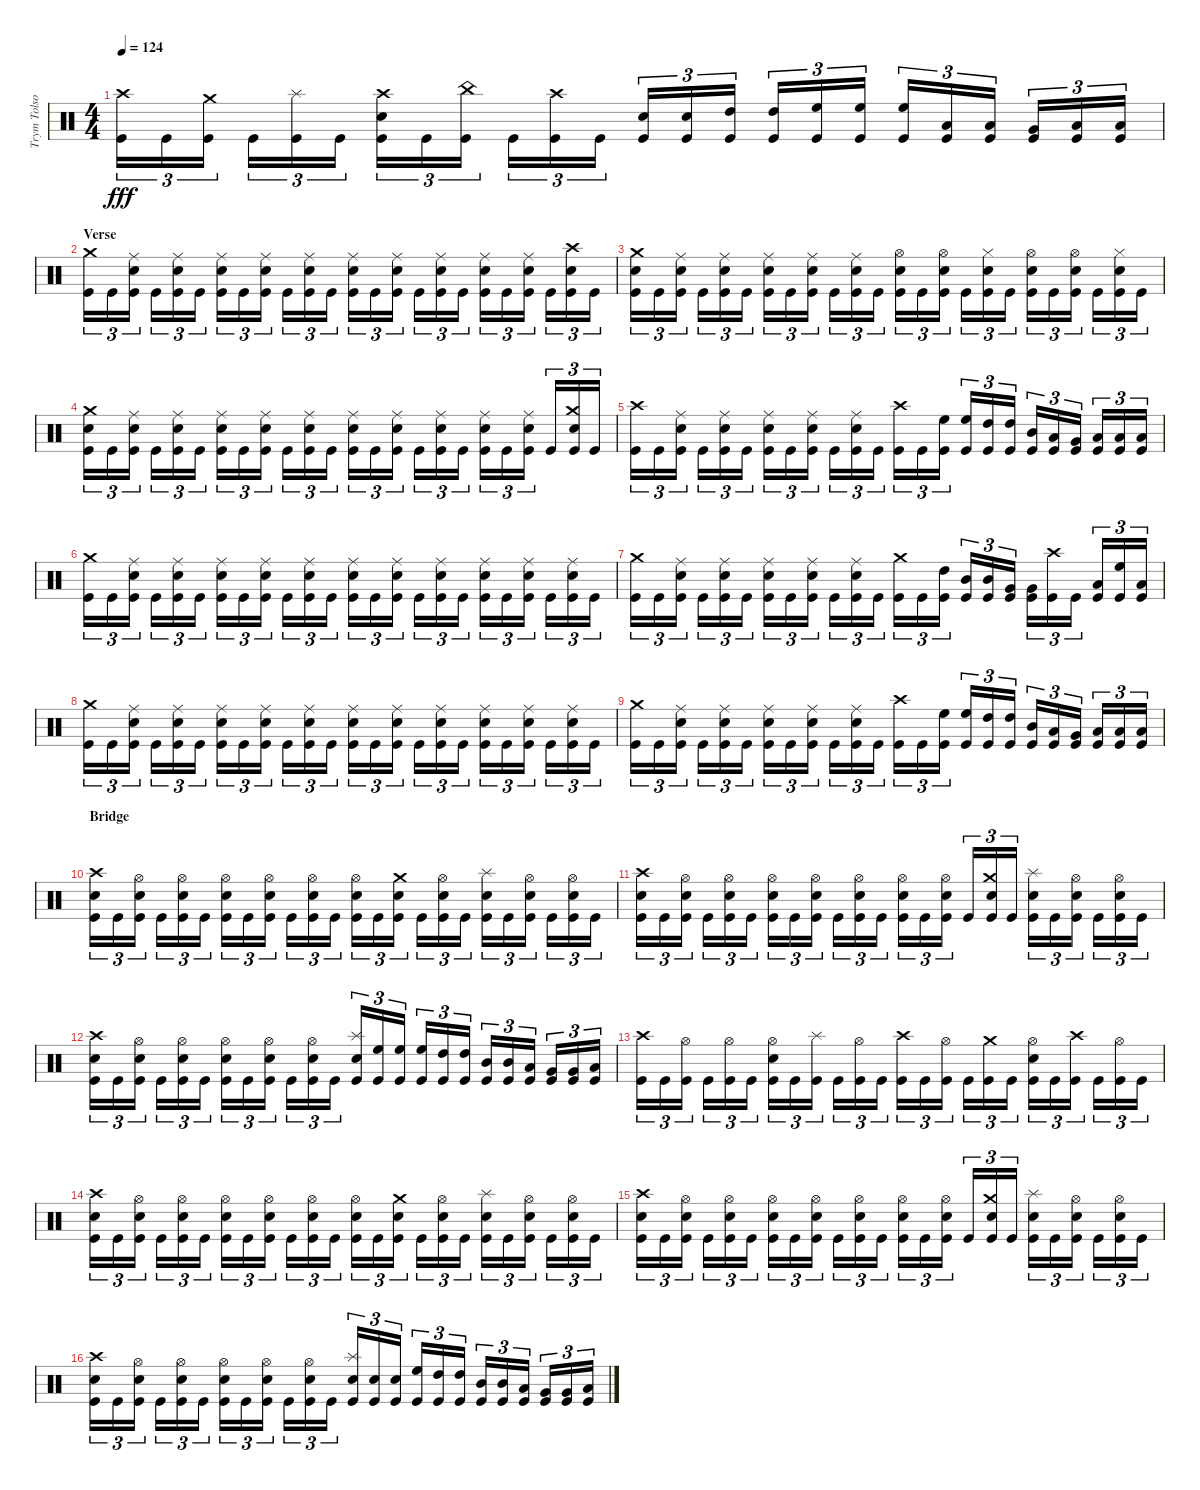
\track ("Trym Tolson" "Trym Tolso") {instrument percussion}
\staff {score}
\articulation defaults
\ts (4 4)
\tempo 124
\clef neutral
\ks c
("Crash high (hit)" "Kick (hit)").16{tu (3 2) dy fff} "Kick (hit)".16{tu (3 2)} ("Crash medium (hit)" "Kick (hit)").16{tu (3 2)} "Kick (hit)".16{tu (3 2)} ("Splash (hit)" "Kick (hit)").16{tu (3 2)} "Kick (hit)".16{tu (3 2)} ("Crash high (hit)" "Electric Snare (hit)" "Kick (hit)").16{tu (3 2)} "Kick (hit)".16{tu (3 2)} ("China (hit)" "Kick (hit)").16{tu (3 2)} "Kick (hit)".16{tu (3 2)} ("Crash high (hit)" "Kick (hit)").16{tu (3 2)} "Kick (hit)".16{tu (3 2)} ("Electric Snare (hit)" "Kick (hit)").16{tu (3 2)} ("Electric Snare (hit)" "Kick (hit)").16{tu (3 2)} ("High Tom (hit)" "Kick (hit)").16{tu (3 2)} ("High Tom (hit)" "Kick (hit)").16{tu (3 2)} ("High Floor Tom (hit)" "Kick (hit)").16{tu (3 2)} ("High Floor Tom (hit)" "Kick (hit)").16{tu (3 2)} ("High Floor Tom (hit)" "Kick (hit)").16{tu (3 2)} ("Low Tom (hit)" "Kick (hit)").16{tu (3 2)} ("Low Tom (hit)" "Kick (hit)").16{tu (3 2)} ("Very Low Tom (hit)" "Kick (hit)").16{tu (3 2)} ("Low Floor Tom (hit)" "Kick (hit)").16{tu (3 2)} ("Low Floor Tom (hit)" "Kick (hit)").16{tu (3 2)} |
\section ("" "Verse")
("Crash medium (hit)" "Kick (hit)").16{tu (3 2)} "Kick (hit)".16{tu (3 2)} ("Ride (middle)" "Electric Snare (hit)" "Kick (hit)").16{tu (3 2)} "Kick (hit)".16{tu (3 2)} ("Ride (middle)" "Electric Snare (hit)" "Kick (hit)").16{tu (3 2)} "Kick (hit)".16{tu (3 2)} ("Ride (middle)" "Electric Snare (hit)" "Kick (hit)").16{tu (3 2)} "Kick (hit)".16{tu (3 2)} ("Ride (middle)" "Electric Snare (hit)" "Kick (hit)").16{tu (3 2)} "Kick (hit)".16{tu (3 2)} ("Ride (middle)" "Electric Snare (hit)" "Kick (hit)").16{tu (3 2)} "Kick (hit)".16{tu (3 2)} ("Ride (middle)" "Electric Snare (hit)" "Kick (hit)").16{tu (3 2)} "Kick (hit)".16{tu (3 2)} ("Ride (middle)" "Electric Snare (hit)" "Kick (hit)").16{tu (3 2)} "Kick (hit)".16{tu (3 2)} ("Ride (middle)" "Electric Snare (hit)" "Kick (hit)").16{tu (3 2)} "Kick (hit)".16{tu (3 2)} ("Ride (middle)" "Electric Snare (hit)" "Kick (hit)").16{tu (3 2)} "Kick (hit)".16{tu (3 2)} ("Ride (middle)" "Electric Snare (hit)" "Kick (hit)").16{tu (3 2)} "Kick (hit)".16{tu (3 2)} ("Crash high (hit)" "Electric Snare (hit)" "Kick (hit)").16{tu (3 2)} "Kick (hit)".16{tu (3 2)} |
("Crash medium (hit)" "Electric Snare (hit)" "Kick (hit)").16{tu (3 2)} "Kick (hit)".16{tu (3 2)} ("Ride (middle)" "Electric Snare (hit)" "Kick (hit)").16{tu (3 2)} "Kick (hit)".16{tu (3 2)} ("Ride (middle)" "Electric Snare (hit)" "Kick (hit)").16{tu (3 2)} "Kick (hit)".16{tu (3 2)} ("Ride (middle)" "Electric Snare (hit)" "Kick (hit)").16{tu (3 2)} "Kick (hit)".16{tu (3 2)} ("Ride (middle)" "Electric Snare (hit)" "Kick (hit)").16{tu (3 2)} "Kick (hit)".16{tu (3 2)} ("Ride (middle)" "Electric Snare (hit)" "Kick (hit)").16{tu (3 2)} "Kick (hit)".16{tu (3 2)} ("Hi-Hat (open)" "Electric Snare (hit)" "Kick (hit)").16{tu (3 2)} "Kick (hit)".16{tu (3 2)} ("Hi-Hat (open)" "Electric Snare (hit)" "Kick (hit)").16{tu (3 2)} "Kick (hit)".16{tu (3 2)} ("Hi-Hat (closed)" "Electric Snare (hit)" "Kick (hit)").16{tu (3 2)} "Kick (hit)".16{tu (3 2)} ("Hi-Hat (open)" "Electric Snare (hit)" "Kick (hit)").16{tu (3 2)} "Kick (hit)".16{tu (3 2)} ("Hi-Hat (open)" "Electric Snare (hit)" "Kick (hit)").16{tu (3 2)} "Kick (hit)".16{tu (3 2)} ("Hi-Hat (closed)" "Electric Snare (hit)" "Kick (hit)").16{tu (3 2)} "Kick (hit)".16{tu (3 2)} |
("Crash medium (hit)" "Electric Snare (hit)" "Kick (hit)").16{tu (3 2)} "Kick (hit)".16{tu (3 2)} ("Ride (middle)" "Electric Snare (hit)" "Kick (hit)").16{tu (3 2)} "Kick (hit)".16{tu (3 2)} ("Ride (middle)" "Electric Snare (hit)" "Kick (hit)").16{tu (3 2)} "Kick (hit)".16{tu (3 2)} ("Ride (middle)" "Electric Snare (hit)" "Kick (hit)").16{tu (3 2)} "Kick (hit)".16{tu (3 2)} ("Ride (middle)" "Electric Snare (hit)" "Kick (hit)").16{tu (3 2)} "Kick (hit)".16{tu (3 2)} ("Ride (middle)" "Electric Snare (hit)" "Kick (hit)").16{tu (3 2)} "Kick (hit)".16{tu (3 2)} ("Ride (middle)" "Electric Snare (hit)" "Kick (hit)").16{tu (3 2)} "Kick (hit)".16{tu (3 2)} ("Ride (middle)" "Electric Snare (hit)" "Kick (hit)").16{tu (3 2)} "Kick (hit)".16{tu (3 2)} ("Ride (middle)" "Electric Snare (hit)" "Kick (hit)").16{tu (3 2)} "Kick (hit)".16{tu (3 2)} ("Ride (middle)" "Electric Snare (hit)" "Kick (hit)").16{tu (3 2)} "Kick (hit)".16{tu (3 2)} ("Ride (middle)" "Electric Snare (hit)" "Kick (hit)").16{tu (3 2)} "Kick (hit)".16{tu (3 2)} ("Crash medium (hit)" "Electric Snare (hit)" "Kick (hit)").16{tu (3 2)} "Kick (hit)".16{tu (3 2)} |
("Crash high (hit)" "Kick (hit)").16{tu (3 2)} "Kick (hit)".16{tu (3 2)} ("Ride (middle)" "Electric Snare (hit)" "Kick (hit)").16{tu (3 2)} "Kick (hit)".16{tu (3 2)} ("Ride (middle)" "Electric Snare (hit)" "Kick (hit)").16{tu (3 2)} "Kick (hit)".16{tu (3 2)} ("Ride (middle)" "Electric Snare (hit)" "Kick (hit)").16{tu (3 2)} "Kick (hit)".16{tu (3 2)} ("Ride (middle)" "Electric Snare (hit)" "Kick (hit)").16{tu (3 2)} "Kick (hit)".16{tu (3 2)} ("Ride (middle)" "Electric Snare (hit)" "Kick (hit)").16{tu (3 2)} "Kick (hit)".16{tu (3 2)} ("Crash high (hit)" "Kick (hit)").16{tu (3 2)} "Kick (hit)".16{tu (3 2)} ("High Floor Tom (hit)" "Kick (hit)").16{tu (3 2)} ("High Floor Tom (hit)" "Kick (hit)").16{tu (3 2)} ("High Tom (hit)" "Kick (hit)").16{tu (3 2)} ("High Tom (hit)" "Kick (hit)").16{tu (3 2)} ("Mid Tom (hit)" "Kick (hit)").16{tu (3 2)} ("Low Tom (hit)" "Kick (hit)").16{tu (3 2)} ("Very Low Tom (hit)" "Kick (hit)").16{tu (3 2)} ("Low Floor Tom (hit)" "Kick (hit)").16{tu (3 2)} ("Low Floor Tom (hit)" "Kick (hit)").16{tu (3 2)} ("Low Floor Tom (hit)" "Kick (hit)").16{tu (3 2)} |
("Crash medium (hit)" "Kick (hit)").16{tu (3 2)} "Kick (hit)".16{tu (3 2)} ("Ride (middle)" "Electric Snare (hit)" "Kick (hit)").16{tu (3 2)} "Kick (hit)".16{tu (3 2)} ("Ride (middle)" "Electric Snare (hit)" "Kick (hit)").16{tu (3 2)} "Kick (hit)".16{tu (3 2)} ("Ride (middle)" "Electric Snare (hit)" "Kick (hit)").16{tu (3 2)} "Kick (hit)".16{tu (3 2)} ("Ride (middle)" "Electric Snare (hit)" "Kick (hit)").16{tu (3 2)} "Kick (hit)".16{tu (3 2)} ("Ride (middle)" "Electric Snare (hit)" "Kick (hit)").16{tu (3 2)} "Kick (hit)".16{tu (3 2)} ("Ride (middle)" "Electric Snare (hit)" "Kick (hit)").16{tu (3 2)} "Kick (hit)".16{tu (3 2)} ("Ride (middle)" "Electric Snare (hit)" "Kick (hit)").16{tu (3 2)} "Kick (hit)".16{tu (3 2)} ("Ride (middle)" "Electric Snare (hit)" "Kick (hit)").16{tu (3 2)} "Kick (hit)".16{tu (3 2)} ("Ride (middle)" "Electric Snare (hit)" "Kick (hit)").16{tu (3 2)} "Kick (hit)".16{tu (3 2)} ("Ride (middle)" "Electric Snare (hit)" "Kick (hit)").16{tu (3 2)} "Kick (hit)".16{tu (3 2)} ("Ride (middle)" "Electric Snare (hit)" "Kick (hit)").16{tu (3 2)} "Kick (hit)".16{tu (3 2)} |
("Crash medium (hit)" "Kick (hit)").16{tu (3 2)} "Kick (hit)".16{tu (3 2)} ("Ride (middle)" "Electric Snare (hit)" "Kick (hit)").16{tu (3 2)} "Kick (hit)".16{tu (3 2)} ("Ride (middle)" "Electric Snare (hit)" "Kick (hit)").16{tu (3 2)} "Kick (hit)".16{tu (3 2)} ("Ride (middle)" "Electric Snare (hit)" "Kick (hit)").16{tu (3 2)} "Kick (hit)".16{tu (3 2)} ("Ride (middle)" "Electric Snare (hit)" "Kick (hit)").16{tu (3 2)} "Kick (hit)".16{tu (3 2)} ("Ride (middle)" "Electric Snare (hit)" "Kick (hit)").16{tu (3 2)} "Kick (hit)".16{tu (3 2)} ("Crash medium (hit)" "Kick (hit)").16{tu (3 2)} "Kick (hit)".16{tu (3 2)} ("High Tom (hit)" "Kick (hit)").16{tu (3 2)} ("Mid Tom (hit)" "Kick (hit)").16{tu (3 2)} ("Mid Tom (hit)" "Kick (hit)").16{tu (3 2)} ("Very Low Tom (hit)" "Kick (hit)").16{tu (3 2)} ("Very Low Tom (hit)" "Kick (hit)").16{tu (3 2)} ("Crash high (hit)" "Kick (hit)").16{tu (3 2)} "Kick (hit)".16{tu (3 2)} ("Low Tom (hit)" "Kick (hit)").16{tu (3 2)} ("High Floor Tom (hit)" "Kick (hit)").16{tu (3 2)} ("Low Floor Tom (hit)" "Kick (hit)").16{tu (3 2)} |
("Crash medium (hit)" "Kick (hit)").16{tu (3 2)} "Kick (hit)".16{tu (3 2)} ("Ride (middle)" "Electric Snare (hit)" "Kick (hit)").16{tu (3 2)} "Kick (hit)".16{tu (3 2)} ("Ride (middle)" "Electric Snare (hit)" "Kick (hit)").16{tu (3 2)} "Kick (hit)".16{tu (3 2)} ("Ride (middle)" "Electric Snare (hit)" "Kick (hit)").16{tu (3 2)} "Kick (hit)".16{tu (3 2)} ("Ride (middle)" "Electric Snare (hit)" "Kick (hit)").16{tu (3 2)} "Kick (hit)".16{tu (3 2)} ("Ride (middle)" "Electric Snare (hit)" "Kick (hit)").16{tu (3 2)} "Kick (hit)".16{tu (3 2)} ("Ride (middle)" "Electric Snare (hit)" "Kick (hit)").16{tu (3 2)} "Kick (hit)".16{tu (3 2)} ("Ride (middle)" "Electric Snare (hit)" "Kick (hit)").16{tu (3 2)} "Kick (hit)".16{tu (3 2)} ("Ride (middle)" "Electric Snare (hit)" "Kick (hit)").16{tu (3 2)} "Kick (hit)".16{tu (3 2)} ("Ride (middle)" "Electric Snare (hit)" "Kick (hit)").16{tu (3 2)} "Kick (hit)".16{tu (3 2)} ("Ride (middle)" "Electric Snare (hit)" "Kick (hit)").16{tu (3 2)} "Kick (hit)".16{tu (3 2)} ("Ride (middle)" "Electric Snare (hit)" "Kick (hit)").16{tu (3 2)} "Kick (hit)".16{tu (3 2)} |
("Crash medium (hit)" "Kick (hit)").16{tu (3 2)} "Kick (hit)".16{tu (3 2)} ("Ride (middle)" "Electric Snare (hit)" "Kick (hit)").16{tu (3 2)} "Kick (hit)".16{tu (3 2)} ("Ride (middle)" "Electric Snare (hit)" "Kick (hit)").16{tu (3 2)} "Kick (hit)".16{tu (3 2)} ("Ride (middle)" "Electric Snare (hit)" "Kick (hit)").16{tu (3 2)} "Kick (hit)".16{tu (3 2)} ("Ride (middle)" "Electric Snare (hit)" "Kick (hit)").16{tu (3 2)} "Kick (hit)".16{tu (3 2)} ("Ride (middle)" "Electric Snare (hit)" "Kick (hit)").16{tu (3 2)} "Kick (hit)".16{tu (3 2)} ("Crash high (hit)" "Kick (hit)").16{tu (3 2)} "Kick (hit)".16{tu (3 2)} ("High Floor Tom (hit)" "Kick (hit)").16{tu (3 2)} ("High Floor Tom (hit)" "Kick (hit)").16{tu (3 2)} ("High Tom (hit)" "Kick (hit)").16{tu (3 2)} ("High Tom (hit)" "Kick (hit)").16{tu (3 2)} ("Mid Tom (hit)" "Kick (hit)").16{tu (3 2)} ("Low Tom (hit)" "Kick (hit)").16{tu (3 2)} ("Very Low Tom (hit)" "Kick (hit)").16{tu (3 2)} ("Low Floor Tom (hit)" "Kick (hit)").16{tu (3 2)} ("Low Floor Tom (hit)" "Kick (hit)").16{tu (3 2)} ("Low Floor Tom (hit)" "Kick (hit)").16{tu (3 2)} |
\section ("" "Bridge")
("Crash high (hit)" "Electric Snare (hit)" "Kick (hit)").16{tu (3 2)} "Kick (hit)".16{tu (3 2)} ("Hi-Hat (open)" "Electric Snare (hit)" "Kick (hit)").16{tu (3 2)} "Kick (hit)".16{tu (3 2)} ("Hi-Hat (open)" "Electric Snare (hit)" "Kick (hit)").16{tu (3 2)} "Kick (hit)".16{tu (3 2)} ("Hi-Hat (open)" "Electric Snare (hit)" "Kick (hit)").16{tu (3 2)} "Kick (hit)".16{tu (3 2)} ("Hi-Hat (open)" "Electric Snare (hit)" "Kick (hit)").16{tu (3 2)} "Kick (hit)".16{tu (3 2)} ("Hi-Hat (open)" "Electric Snare (hit)" "Kick (hit)").16{tu (3 2)} "Kick (hit)".16{tu (3 2)} ("Hi-Hat (open)" "Electric Snare (hit)" "Kick (hit)").16{tu (3 2)} "Kick (hit)".16{tu (3 2)} ("Crash medium (hit)" "Electric Snare (hit)" "Kick (hit)").16{tu (3 2)} "Kick (hit)".16{tu (3 2)} ("Hi-Hat (open)" "Electric Snare (hit)" "Kick (hit)").16{tu (3 2)} "Kick (hit)".16{tu (3 2)} ("Splash (hit)" "Electric Snare (hit)" "Kick (hit)").16{tu (3 2)} "Kick (hit)".16{tu (3 2)} ("Hi-Hat (open)" "Electric Snare (hit)" "Kick (hit)").16{tu (3 2)} "Kick (hit)".16{tu (3 2)} ("Hi-Hat (open)" "Electric Snare (hit)" "Kick (hit)").16{tu (3 2)} "Kick (hit)".16{tu (3 2)} |
("Crash high (hit)" "Electric Snare (hit)" "Kick (hit)").16{tu (3 2)} "Kick (hit)".16{tu (3 2)} ("Hi-Hat (open)" "Electric Snare (hit)" "Kick (hit)").16{tu (3 2)} "Kick (hit)".16{tu (3 2)} ("Hi-Hat (open)" "Electric Snare (hit)" "Kick (hit)").16{tu (3 2)} "Kick (hit)".16{tu (3 2)} ("Hi-Hat (open)" "Electric Snare (hit)" "Kick (hit)").16{tu (3 2)} "Kick (hit)".16{tu (3 2)} ("Hi-Hat (open)" "Electric Snare (hit)" "Kick (hit)").16{tu (3 2)} "Kick (hit)".16{tu (3 2)} ("Hi-Hat (open)" "Electric Snare (hit)" "Kick (hit)").16{tu (3 2)} "Kick (hit)".16{tu (3 2)} ("Hi-Hat (open)" "Electric Snare (hit)" "Kick (hit)").16{tu (3 2)} "Kick (hit)".16{tu (3 2)} ("Hi-Hat (open)" "Electric Snare (hit)" "Kick (hit)").16{tu (3 2)} "Kick (hit)".16{tu (3 2)} ("Crash medium (hit)" "Electric Snare (hit)" "Kick (hit)").16{tu (3 2)} "Kick (hit)".16{tu (3 2)} ("Splash (hit)" "Electric Snare (hit)" "Kick (hit)").16{tu (3 2)} "Kick (hit)".16{tu (3 2)} ("Hi-Hat (open)" "Electric Snare (hit)" "Kick (hit)").16{tu (3 2)} "Kick (hit)".16{tu (3 2)} ("Hi-Hat (open)" "Electric Snare (hit)" "Kick (hit)").16{tu (3 2)} "Kick (hit)".16{tu (3 2)} |
("Crash high (hit)" "Electric Snare (hit)" "Kick (hit)").16{tu (3 2)} "Kick (hit)".16{tu (3 2)} ("Hi-Hat (open)" "Electric Snare (hit)" "Kick (hit)").16{tu (3 2)} "Kick (hit)".16{tu (3 2)} ("Hi-Hat (open)" "Electric Snare (hit)" "Kick (hit)").16{tu (3 2)} "Kick (hit)".16{tu (3 2)} ("Hi-Hat (open)" "Electric Snare (hit)" "Kick (hit)").16{tu (3 2)} "Kick (hit)".16{tu (3 2)} ("Hi-Hat (open)" "Electric Snare (hit)" "Kick (hit)").16{tu (3 2)} "Kick (hit)".16{tu (3 2)} ("Hi-Hat (open)" "Electric Snare (hit)" "Kick (hit)").16{tu (3 2)} "Kick (hit)".16{tu (3 2)} ("Splash (hit)" "Electric Snare (hit)" "Kick (hit)").16{tu (3 2)} ("High Floor Tom (hit)" "Kick (hit)").16{tu (3 2)} ("High Floor Tom (hit)" "Kick (hit)").16{tu (3 2)} ("High Floor Tom (hit)" "Kick (hit)").16{tu (3 2)} ("High Tom (hit)" "Kick (hit)").16{tu (3 2)} ("High Tom (hit)" "Kick (hit)").16{tu (3 2)} ("Mid Tom (hit)" "Kick (hit)").16{tu (3 2)} ("Mid Tom (hit)" "Kick (hit)").16{tu (3 2)} ("Low Tom (hit)" "Kick (hit)").16{tu (3 2)} ("Very Low Tom (hit)" "Kick (hit)").16{tu (3 2)} ("Very Low Tom (hit)" "Kick (hit)").16{tu (3 2)} ("Low Floor Tom (hit)" "Kick (hit)").16{tu (3 2)} |
("Crash high (hit)" "Kick (hit)").16{tu (3 2)} "Kick (hit)".16{tu (3 2)} ("Hi-Hat (open)" "Kick (hit)").16{tu (3 2)} "Kick (hit)".16{tu (3 2)} ("Hi-Hat (open)" "Kick (hit)").16{tu (3 2)} "Kick (hit)".16{tu (3 2)} ("Hi-Hat (open)" "Electric Snare (hit)" "Kick (hit)").16{tu (3 2)} "Kick (hit)".16{tu (3 2)} ("Splash (hit)" "Kick (hit)").16{tu (3 2)} "Kick (hit)".16{tu (3 2)} ("Hi-Hat (open)" "Kick (hit)").16{tu (3 2)} "Kick (hit)".16{tu (3 2)} ("Crash high (hit)" "Kick (hit)").16{tu (3 2)} "Kick (hit)".16{tu (3 2)} ("Hi-Hat (open)" "Kick (hit)").16{tu (3 2)} "Kick (hit)".16{tu (3 2)} ("Crash medium (hit)" "Kick (hit)").16{tu (3 2)} "Kick (hit)".16{tu (3 2)} ("Hi-Hat (open)" "Electric Snare (hit)" "Kick (hit)").16{tu (3 2)} "Kick (hit)".16{tu (3 2)} ("Crash high (hit)" "Kick (hit)").16{tu (3 2)} "Kick (hit)".16{tu (3 2)} ("Hi-Hat (open)" "Kick (hit)").16{tu (3 2)} "Kick (hit)".16{tu (3 2)} |
("Crash high (hit)" "Electric Snare (hit)" "Kick (hit)").16{tu (3 2)} "Kick (hit)".16{tu (3 2)} ("Hi-Hat (open)" "Electric Snare (hit)" "Kick (hit)").16{tu (3 2)} "Kick (hit)".16{tu (3 2)} ("Hi-Hat (open)" "Electric Snare (hit)" "Kick (hit)").16{tu (3 2)} "Kick (hit)".16{tu (3 2)} ("Hi-Hat (open)" "Electric Snare (hit)" "Kick (hit)").16{tu (3 2)} "Kick (hit)".16{tu (3 2)} ("Hi-Hat (open)" "Electric Snare (hit)" "Kick (hit)").16{tu (3 2)} "Kick (hit)".16{tu (3 2)} ("Hi-Hat (open)" "Electric Snare (hit)" "Kick (hit)").16{tu (3 2)} "Kick (hit)".16{tu (3 2)} ("Hi-Hat (open)" "Electric Snare (hit)" "Kick (hit)").16{tu (3 2)} "Kick (hit)".16{tu (3 2)} ("Crash medium (hit)" "Electric Snare (hit)" "Kick (hit)").16{tu (3 2)} "Kick (hit)".16{tu (3 2)} ("Hi-Hat (open)" "Electric Snare (hit)" "Kick (hit)").16{tu (3 2)} "Kick (hit)".16{tu (3 2)} ("Splash (hit)" "Electric Snare (hit)" "Kick (hit)").16{tu (3 2)} "Kick (hit)".16{tu (3 2)} ("Hi-Hat (open)" "Electric Snare (hit)" "Kick (hit)").16{tu (3 2)} "Kick (hit)".16{tu (3 2)} ("Hi-Hat (open)" "Electric Snare (hit)" "Kick (hit)").16{tu (3 2)} "Kick (hit)".16{tu (3 2)} |
("Crash high (hit)" "Electric Snare (hit)" "Kick (hit)").16{tu (3 2)} "Kick (hit)".16{tu (3 2)} ("Hi-Hat (open)" "Electric Snare (hit)" "Kick (hit)").16{tu (3 2)} "Kick (hit)".16{tu (3 2)} ("Hi-Hat (open)" "Electric Snare (hit)" "Kick (hit)").16{tu (3 2)} "Kick (hit)".16{tu (3 2)} ("Hi-Hat (open)" "Electric Snare (hit)" "Kick (hit)").16{tu (3 2)} "Kick (hit)".16{tu (3 2)} ("Hi-Hat (open)" "Electric Snare (hit)" "Kick (hit)").16{tu (3 2)} "Kick (hit)".16{tu (3 2)} ("Hi-Hat (open)" "Electric Snare (hit)" "Kick (hit)").16{tu (3 2)} "Kick (hit)".16{tu (3 2)} ("Hi-Hat (open)" "Electric Snare (hit)" "Kick (hit)").16{tu (3 2)} "Kick (hit)".16{tu (3 2)} ("Hi-Hat (open)" "Electric Snare (hit)" "Kick (hit)").16{tu (3 2)} "Kick (hit)".16{tu (3 2)} ("Crash medium (hit)" "Electric Snare (hit)" "Kick (hit)").16{tu (3 2)} "Kick (hit)".16{tu (3 2)} ("Splash (hit)" "Electric Snare (hit)" "Kick (hit)").16{tu (3 2)} "Kick (hit)".16{tu (3 2)} ("Hi-Hat (open)" "Electric Snare (hit)" "Kick (hit)").16{tu (3 2)} "Kick (hit)".16{tu (3 2)} ("Hi-Hat (open)" "Electric Snare (hit)" "Kick (hit)").16{tu (3 2)} "Kick (hit)".16{tu (3 2)} |
("Crash high (hit)" "Electric Snare (hit)" "Kick (hit)").16{tu (3 2)} "Kick (hit)".16{tu (3 2)} ("Hi-Hat (open)" "Electric Snare (hit)" "Kick (hit)").16{tu (3 2)} "Kick (hit)".16{tu (3 2)} ("Hi-Hat (open)" "Electric Snare (hit)" "Kick (hit)").16{tu (3 2)} "Kick (hit)".16{tu (3 2)} ("Hi-Hat (open)" "Electric Snare (hit)" "Kick (hit)").16{tu (3 2)} "Kick (hit)".16{tu (3 2)} ("Hi-Hat (open)" "Electric Snare (hit)" "Kick (hit)").16{tu (3 2)} "Kick (hit)".16{tu (3 2)} ("Hi-Hat (open)" "Electric Snare (hit)" "Kick (hit)").16{tu (3 2)} "Kick (hit)".16{tu (3 2)} ("Splash (hit)" "Electric Snare (hit)" "Kick (hit)").16{tu (3 2)} ("Electric Snare (hit)" "Kick (hit)").16{tu (3 2)} ("Electric Snare (hit)" "Kick (hit)").16{tu (3 2)} ("High Floor Tom (hit)" "Kick (hit)").16{tu (3 2)} ("High Tom (hit)" "Kick (hit)").16{tu (3 2)} ("High Tom (hit)" "Kick (hit)").16{tu (3 2)} ("Mid Tom (hit)" "Kick (hit)").16{tu (3 2)} ("Mid Tom (hit)" "Kick (hit)").16{tu (3 2)} ("Low Tom (hit)" "Kick (hit)").16{tu (3 2)} ("Very Low Tom (hit)" "Kick (hit)").16{tu (3 2)} ("Very Low Tom (hit)" "Kick (hit)").16{tu (3 2)} ("Low Floor Tom (hit)" "Kick (hit)").16{tu (3 2)}
